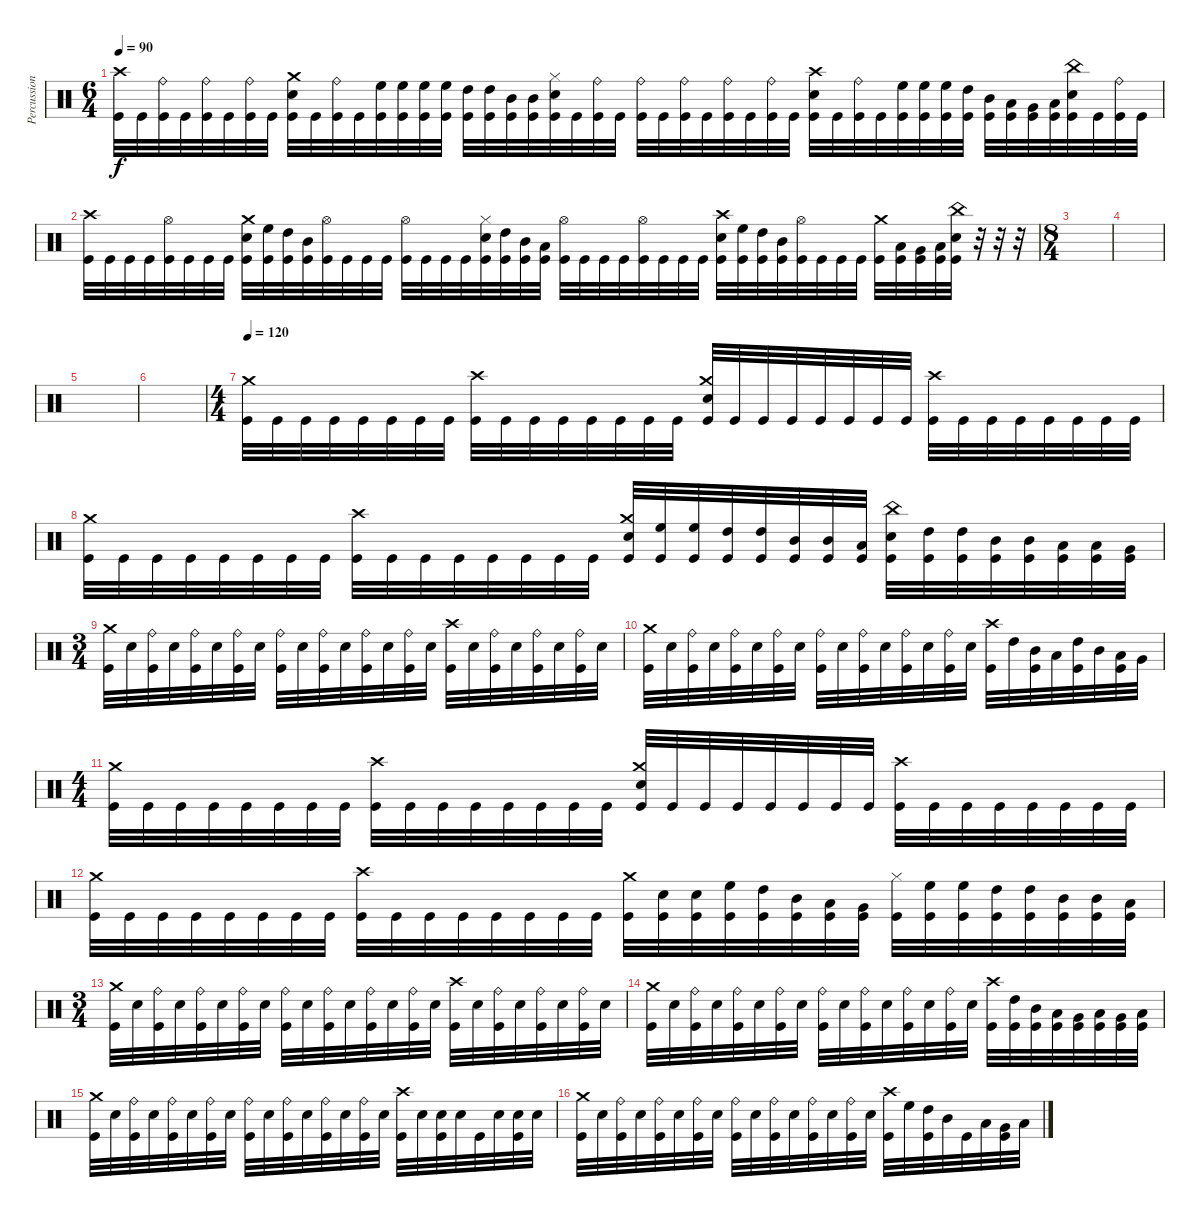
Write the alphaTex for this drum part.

\track ("Percussion" "Percussion") {instrument percussion}
\staff {score}
\articulation defaults
\ts (6 4)
\tempo 90
\clef neutral
\ks c
("Crash high (hit)" "Kick (hit)").32{dy f} "Kick (hit)".32 ("Ride (bell)" "Kick (hit)").32 "Kick (hit)".32 ("Ride (bell)" "Kick (hit)").32 "Kick (hit)".32 ("Ride (bell)" "Kick (hit)").32 "Kick (hit)".32 ("Crash medium (hit)" "Snare (hit) 2" "Kick (hit)").32 "Kick (hit)".32 ("Ride (bell)" "Kick (hit)").32 "Kick (hit)".32 ("High Floor Tom (hit)" "Kick (hit)").32 ("High Floor Tom (hit)" "Kick (hit)").32 ("High Floor Tom (hit)" "Kick (hit)").32 ("High Floor Tom (hit)" "Kick (hit)").32 ("High Tom (hit)" "Kick (hit)").32 ("High Tom (hit)" "Kick (hit)").32 ("Mid Tom (hit)" "Kick (hit)").32 ("Mid Tom (hit)" "Kick (hit)").32 ("Hi-Hat (closed)" "Snare (hit) 2" "Kick (hit)").32 "Kick (hit)".32 ("Ride (bell)" "Kick (hit)").32 "Kick (hit)".32 ("Ride (bell)" "Kick (hit)").32 "Kick (hit)".32 ("Ride (bell)" "Kick (hit)").32 "Kick (hit)".32 ("Ride (bell)" "Kick (hit)").32 "Kick (hit)".32 ("Ride (bell)" "Kick (hit)").32 "Kick (hit)".32 ("Crash high (hit)" "Snare (hit) 2" "Kick (hit)").32 "Kick (hit)".32 ("Ride (bell)" "Kick (hit)").32 "Kick (hit)".32 ("High Floor Tom (hit)" "Kick (hit)").32 ("High Floor Tom (hit)" "Kick (hit)").32 ("High Floor Tom (hit)" "Kick (hit)").32 ("High Tom (hit)" "Kick (hit)").32 ("Mid Tom (hit)" "Kick (hit)").32 ("Low Tom (hit)" "Kick (hit)").32 ("Very Low Tom (hit)" "Kick (hit)").32 ("Low Floor Tom (hit)" "Kick (hit)").32 ("China (hit)" "Snare (hit) 2" "Kick (hit)").32 "Kick (hit)".32 ("Ride (bell)" "Kick (hit)").32 "Kick (hit)".32 |
("Crash high (hit)" "Kick (hit)").32 "Kick (hit)".32 "Kick (hit)".32 "Kick (hit)".32 ("Hi-Hat (open)" "Kick (hit)").32 "Kick (hit)".32 "Kick (hit)".32 "Kick (hit)".32 ("Crash medium (hit)" "Snare (hit) 2" "Kick (hit)").32 ("High Floor Tom (hit)" "Kick (hit)").32 ("High Tom (hit)" "Kick (hit)").32 ("Mid Tom (hit)" "Kick (hit)").32 ("Hi-Hat (open)" "Kick (hit)").32 "Kick (hit)".32 "Kick (hit)".32 "Kick (hit)".32 ("Hi-Hat (open)" "Kick (hit)").32 "Kick (hit)".32 "Kick (hit)".32 "Kick (hit)".32 ("Hi-Hat (closed)" "Snare (hit) 2" "Kick (hit)").32 ("High Tom (hit)" "Kick (hit)").32 ("Mid Tom (hit)" "Kick (hit)").32 ("Low Tom (hit)" "Kick (hit)").32 ("Hi-Hat (open)" "Kick (hit)").32 "Kick (hit)".32 "Kick (hit)".32 "Kick (hit)".32 ("Hi-Hat (open)" "Kick (hit)").32 "Kick (hit)".32 "Kick (hit)".32 "Kick (hit)".32 ("Crash high (hit)" "Snare (hit) 2" "Kick (hit)").32 ("High Floor Tom (hit)" "Kick (hit)").32 ("High Tom (hit)" "Kick (hit)").32 ("Mid Tom (hit)" "Kick (hit)").32 ("Hi-Hat (open)" "Kick (hit)").32 "Kick (hit)".32 "Kick (hit)".32 "Kick (hit)".32 ("Crash medium (hit)" "Kick (hit)").32 ("Low Tom (hit)" "Kick (hit)").32 ("Very Low Tom (hit)" "Kick (hit)").32 ("Low Floor Tom (hit)" "Kick (hit)").32 ("China (hit)" "Snare (hit) 2" "Kick (hit)").32 r.32 r.32 r.32 |
\ts (8 4)
|
|
|
|
\ts (4 4)
\tempo 120
("Crash medium (hit)" "Kick (hit)").32 "Kick (hit)".32 "Kick (hit)".32 "Kick (hit)".32 "Kick (hit)".32 "Kick (hit)".32 "Kick (hit)".32 "Kick (hit)".32 ("Crash high (hit)" "Kick (hit)").32 "Kick (hit)".32 "Kick (hit)".32 "Kick (hit)".32 "Kick (hit)".32 "Kick (hit)".32 "Kick (hit)".32 "Kick (hit)".32 ("Crash medium (hit)" "Snare (hit) 2" "Kick (hit)").32 "Kick (hit)".32 "Kick (hit)".32 "Kick (hit)".32 "Kick (hit)".32 "Kick (hit)".32 "Kick (hit)".32 "Kick (hit)".32 ("Crash high (hit)" "Kick (hit)").32 "Kick (hit)".32 "Kick (hit)".32 "Kick (hit)".32 "Kick (hit)".32 "Kick (hit)".32 "Kick (hit)".32 "Kick (hit)".32 |
("Crash medium (hit)" "Kick (hit)").32 "Kick (hit)".32 "Kick (hit)".32 "Kick (hit)".32 "Kick (hit)".32 "Kick (hit)".32 "Kick (hit)".32 "Kick (hit)".32 ("Crash high (hit)" "Kick (hit)").32 "Kick (hit)".32 "Kick (hit)".32 "Kick (hit)".32 "Kick (hit)".32 "Kick (hit)".32 "Kick (hit)".32 "Kick (hit)".32 ("Crash medium (hit)" "Snare (hit) 2" "Kick (hit)").32 ("High Floor Tom (hit)" "Kick (hit)").32 ("High Floor Tom (hit)" "Kick (hit)").32 ("High Tom (hit)" "Kick (hit)").32 ("High Tom (hit)" "Kick (hit)").32 ("Mid Tom (hit)" "Kick (hit)").32 ("Mid Tom (hit)" "Kick (hit)").32 ("Low Tom (hit)" "Kick (hit)").32 ("China (hit)" "Snare (hit) 2" "Kick (hit)").32 ("High Tom (hit)" "Kick (hit)").32 ("High Tom (hit)" "Kick (hit)").32 ("Mid Tom (hit)" "Kick (hit)").32 ("Mid Tom (hit)" "Kick (hit)").32 ("Low Tom (hit)" "Kick (hit)").32 ("Low Tom (hit)" "Kick (hit)").32 ("Very Low Tom (hit)" "Kick (hit)").32 |
\ts (3 4)
("Crash medium (hit)" "Kick (hit)").32 "Snare (hit) 2".32 ("Ride (bell)" "Kick (hit)").32 "Snare (hit) 2".32 ("Ride (bell)" "Kick (hit)").32 "Snare (hit) 2".32 ("Ride (bell)" "Kick (hit)").32 "Snare (hit) 2".32 ("Ride (bell)" "Kick (hit)").32 "Snare (hit) 2".32 ("Ride (bell)" "Kick (hit)").32 "Snare (hit) 2".32 ("Ride (bell)" "Kick (hit)").32 "Snare (hit) 2".32 ("Ride (bell)" "Kick (hit)").32 "Snare (hit) 2".32 ("Crash high (hit)" "Kick (hit)").32 "Snare (hit) 2".32 ("Ride (bell)" "Kick (hit)").32 "Snare (hit) 2".32 ("Ride (bell)" "Kick (hit)").32 "Snare (hit) 2".32 ("Ride (bell)" "Kick (hit)").32 "Snare (hit) 2".32 |
("Crash medium (hit)" "Kick (hit)").32 "Snare (hit) 2".32 ("Ride (bell)" "Kick (hit)").32 "Snare (hit) 2".32 ("Ride (bell)" "Kick (hit)").32 "Snare (hit) 2".32 ("Ride (bell)" "Kick (hit)").32 "Snare (hit) 2".32 ("Ride (bell)" "Kick (hit)").32 "Snare (hit) 2".32 ("Ride (bell)" "Kick (hit)").32 "Snare (hit) 2".32 ("Ride (bell)" "Kick (hit)").32 "Snare (hit) 2".32 ("Ride (bell)" "Kick (hit)").32 "Snare (hit) 2".32 ("Crash high (hit)" "Kick (hit)").32 "High Tom (hit)".32 ("Mid Tom (hit)" "Kick (hit)").32 "Low Tom (hit)".32 ("High Tom (hit)" "Kick (hit)").32 "Mid Tom (hit)".32 ("Low Tom (hit)" "Kick (hit)").32 "Very Low Tom (hit)".32 |
\ts (4 4)
("Crash medium (hit)" "Kick (hit)").32 "Kick (hit)".32 "Kick (hit)".32 "Kick (hit)".32 "Kick (hit)".32 "Kick (hit)".32 "Kick (hit)".32 "Kick (hit)".32 ("Crash high (hit)" "Kick (hit)").32 "Kick (hit)".32 "Kick (hit)".32 "Kick (hit)".32 "Kick (hit)".32 "Kick (hit)".32 "Kick (hit)".32 "Kick (hit)".32 ("Crash medium (hit)" "Snare (hit) 2" "Kick (hit)").32 "Kick (hit)".32 "Kick (hit)".32 "Kick (hit)".32 "Kick (hit)".32 "Kick (hit)".32 "Kick (hit)".32 "Kick (hit)".32 ("Crash high (hit)" "Kick (hit)").32 "Kick (hit)".32 "Kick (hit)".32 "Kick (hit)".32 "Kick (hit)".32 "Kick (hit)".32 "Kick (hit)".32 "Kick (hit)".32 |
("Crash medium (hit)" "Kick (hit)").32 "Kick (hit)".32 "Kick (hit)".32 "Kick (hit)".32 "Kick (hit)".32 "Kick (hit)".32 "Kick (hit)".32 "Kick (hit)".32 ("Crash high (hit)" "Kick (hit)").32 "Kick (hit)".32 "Kick (hit)".32 "Kick (hit)".32 "Kick (hit)".32 "Kick (hit)".32 "Kick (hit)".32 "Kick (hit)".32 ("Crash medium (hit)" "Kick (hit)").32 ("Snare (hit) 2" "Kick (hit)").32 ("Snare (hit) 2" "Kick (hit)").32 ("High Floor Tom (hit)" "Kick (hit)").32 ("High Tom (hit)" "Kick (hit)").32 ("Mid Tom (hit)" "Kick (hit)").32 ("Low Tom (hit)" "Kick (hit)").32 ("Very Low Tom (hit)" "Kick (hit)").32 ("Hi-Hat (closed)" "Kick (hit)").32 ("High Floor Tom (hit)" "Kick (hit)").32 ("High Floor Tom (hit)" "Kick (hit)").32 ("High Tom (hit)" "Kick (hit)").32 ("High Tom (hit)" "Kick (hit)").32 ("Mid Tom (hit)" "Kick (hit)").32 ("Mid Tom (hit)" "Kick (hit)").32 ("Low Tom (hit)" "Kick (hit)").32 |
\ts (3 4)
("Crash medium (hit)" "Kick (hit)").32 "Snare (hit) 2".32 ("Ride (bell)" "Kick (hit)").32 "Snare (hit) 2".32 ("Ride (bell)" "Kick (hit)").32 "Snare (hit) 2".32 ("Ride (bell)" "Kick (hit)").32 "Snare (hit) 2".32 ("Ride (bell)" "Kick (hit)").32 "Snare (hit) 2".32 ("Ride (bell)" "Kick (hit)").32 "Snare (hit) 2".32 ("Ride (bell)" "Kick (hit)").32 "Snare (hit) 2".32 ("Ride (bell)" "Kick (hit)").32 "Snare (hit) 2".32 ("Crash high (hit)" "Kick (hit)").32 "Snare (hit) 2".32 ("Ride (bell)" "Kick (hit)").32 "Snare (hit) 2".32 ("Ride (bell)" "Kick (hit)").32 "Snare (hit) 2".32 ("Ride (bell)" "Kick (hit)").32 "Snare (hit) 2".32 |
("Crash medium (hit)" "Kick (hit)").32 "Snare (hit) 2".32 ("Ride (bell)" "Kick (hit)").32 "Snare (hit) 2".32 ("Ride (bell)" "Kick (hit)").32 "Snare (hit) 2".32 ("Ride (bell)" "Kick (hit)").32 "Snare (hit) 2".32 ("Ride (bell)" "Kick (hit)").32 "Snare (hit) 2".32 ("Ride (bell)" "Kick (hit)").32 "Snare (hit) 2".32 ("Ride (bell)" "Kick (hit)").32 "Snare (hit) 2".32 ("Ride (bell)" "Kick (hit)").32 "Snare (hit) 2".32 ("Crash high (hit)" "Kick (hit)").32 ("High Tom (hit)" "Kick (hit)").32 ("Mid Tom (hit)" "Kick (hit)").32 ("Low Tom (hit)" "Kick (hit)").32 ("Very Low Tom (hit)" "Kick (hit)").32 ("Low Tom (hit)" "Kick (hit)").32 ("Very Low Tom (hit)" "Kick (hit)").32 ("Low Floor Tom (hit)" "Kick (hit)").32 |
("Crash medium (hit)" "Kick (hit)").32 "Snare (hit) 2".32 ("Ride (bell)" "Kick (hit)").32 "Snare (hit) 2".32 ("Ride (bell)" "Kick (hit)").32 "Snare (hit) 2".32 ("Ride (bell)" "Kick (hit)").32 "Snare (hit) 2".32 ("Ride (bell)" "Kick (hit)").32 "Snare (hit) 2".32 ("Ride (bell)" "Kick (hit)").32 "Snare (hit) 2".32 ("Ride (bell)" "Kick (hit)").32 "Snare (hit) 2".32 ("Ride (bell)" "Kick (hit)").32 "Snare (hit) 2".32 ("Crash high (hit)" "Kick (hit)").32 "Snare (hit) 2".32 ("Snare (hit) 2" "Kick (hit)").32 "Snare (hit) 2".32 "Kick (hit)".32 "Snare (hit) 2".32 ("Snare (hit) 2" "Kick (hit)").32 "Snare (hit) 2".32 |
("Crash medium (hit)" "Kick (hit)").32 "Snare (hit) 2".32 ("Ride (bell)" "Kick (hit)").32 "Snare (hit) 2".32 ("Ride (bell)" "Kick (hit)").32 "Snare (hit) 2".32 ("Ride (bell)" "Kick (hit)").32 "Snare (hit) 2".32 ("Ride (bell)" "Kick (hit)").32 "Snare (hit) 2".32 ("Ride (bell)" "Kick (hit)").32 "Snare (hit) 2".32 ("Ride (bell)" "Kick (hit)").32 "Snare (hit) 2".32 ("Ride (bell)" "Kick (hit)").32 "Snare (hit) 2".32 ("Crash high (hit)" "Kick (hit)").32 "High Floor Tom (hit)".32 ("High Tom (hit)" "Kick (hit)").32 "Mid Tom (hit)".32 "Kick (hit)".32 "Low Tom (hit)".32 ("Very Low Tom (hit)" "Kick (hit)").32 "Low Floor Tom (hit)".32
